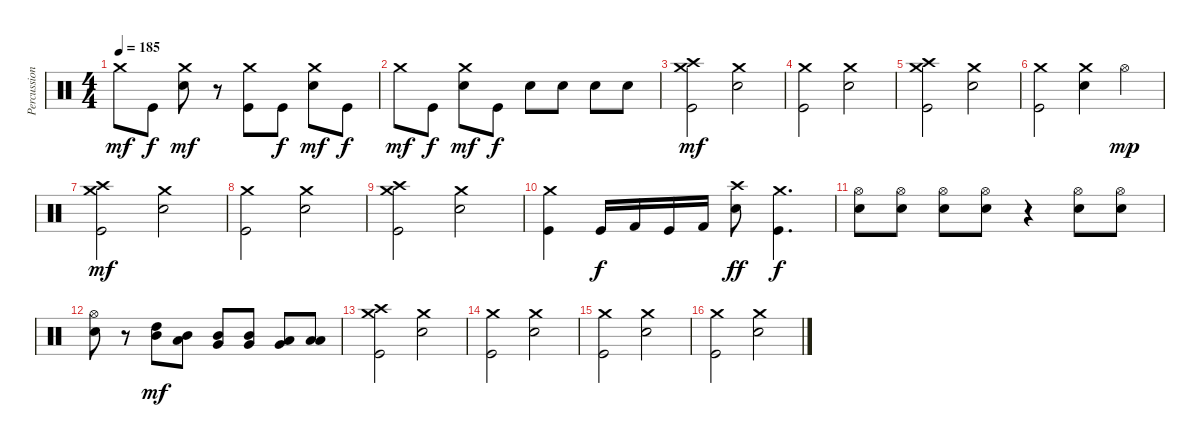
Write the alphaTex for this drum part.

\track ("Percussions" "Percussion") {instrument percussion}
\staff {score}
\articulation defaults
\ts (4 4)
\tempo 185
\clef neutral
\ks c "Crash medium (hit)".8{dy mf} "Kick (hit)".8{dy f}
("Electric Snare (hit)" "Crash medium (hit)").8{dy mf} r.8 ("Kick (hit)" "Crash medium (hit)").8 "Kick (hit)".8{dy f} ("Electric Snare (hit)" "Crash medium (hit)").8{dy mf} "Kick (hit)".8{dy f} |
"Crash medium (hit)".8{dy mf} "Kick (hit)".8{dy f} ("Electric Snare (hit)" "Crash medium (hit)").8{dy mf} "Kick (hit)".8{dy f} "Electric Snare (hit)".8 "Electric Snare (hit)".8 "Electric Snare (hit)".8 "Electric Snare (hit)".8 |
("Kick (hit)" "Crash medium (hit)" "Crash high (hit)").2{dy mf} ("Electric Snare (hit)" "Crash medium (hit)").2 |
("Kick (hit)" "Crash medium (hit)").2 ("Electric Snare (hit)" "Crash medium (hit)").2 |
("Kick (hit)" "Crash medium (hit)" "Crash high (hit)").2 ("Electric Snare (hit)" "Crash medium (hit)").2 |
("Kick (hit)" "Crash medium (hit)").2 ("Electric Snare (hit)" "Crash medium (hit)").4 "Hi-Hat (open)".4{dy mp} |
("Kick (hit)" "Crash medium (hit)" "Crash high (hit)").2{dy mf} ("Electric Snare (hit)" "Crash medium (hit)").2 |
("Kick (hit)" "Crash medium (hit)").2 ("Electric Snare (hit)" "Crash medium (hit)").2 |
("Kick (hit)" "Crash medium (hit)" "Crash high (hit)").2 ("Electric Snare (hit)" "Crash medium (hit)").2 |
("Kick (hit)" "Crash medium (hit)").4 "Kick (hit)".16{dy f} "Kick (hit) 2".16 "Kick (hit)".16 "Kick (hit) 2".16 ("Electric Snare (hit)" "Crash high (hit)").8{dy ff} ("Kick (hit)" "Crash medium (hit)").4{d dy f} |
("Electric Snare (hit)" "Hi-Hat (open)").8 ("Electric Snare (hit)" "Hi-Hat (open)").8 ("Electric Snare (hit)" "Hi-Hat (open)").8 ("Electric Snare (hit)" "Hi-Hat (open)").8 r.4 ("Electric Snare (hit)" "Hi-Hat (open)").8 ("Electric Snare (hit)" "Hi-Hat (open)").8 |
("Electric Snare (hit)" "Hi-Hat (open)").8 r.8 ("Mid Tom (hit)" "High Tom (hit)").8{dy mf} ("Low Tom (hit)" "Mid Tom (hit)").8 ("Very Low Tom (hit)" "Mid Tom (hit)").8 ("Very Low Tom (hit)" "Mid Tom (hit)").8 ("Very Low Tom (hit)" "Low Tom (hit)").8 ("Low Floor Tom (hit)" "Low Tom (hit)").8 |
("Kick (hit)" "Crash medium (hit)" "Crash high (hit)").2 ("Electric Snare (hit)" "Crash medium (hit)").2 |
("Kick (hit)" "Crash medium (hit)").2 ("Electric Snare (hit)" "Crash medium (hit)").2 |
("Kick (hit)" "Crash medium (hit)").2 ("Electric Snare (hit)" "Crash medium (hit)").2 |
("Kick (hit)" "Crash medium (hit)").2 ("Electric Snare (hit)" "Crash medium (hit)").2
